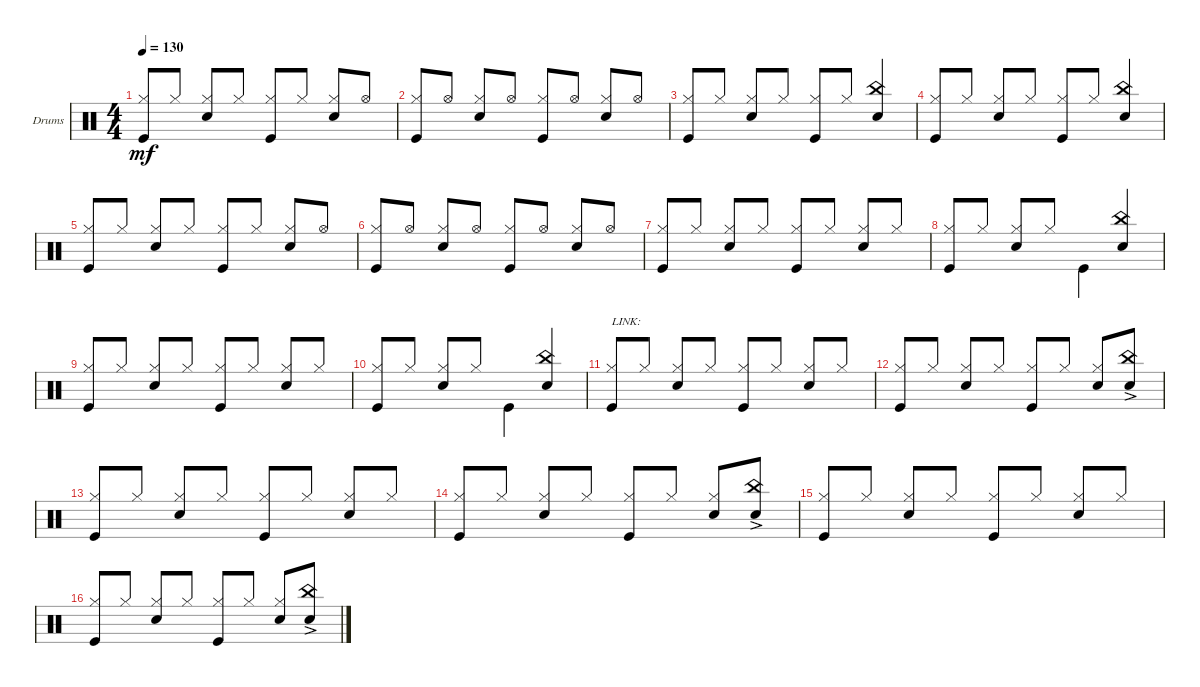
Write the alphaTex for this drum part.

\defaultSystemsLayout 4
\bracketExtendMode groupsimilarinstruments
\firstSystemTrackNameOrientation horizontal
\otherSystemsTrackNameOrientation horizontal
\track ("Drumkit" "Drums") {instrument percussion}
\staff {score}
\articulation defaults
\ts (4 4)
\tempo 130
\clef neutral
\scale
0.333333
\ks c
("Hi-Hat (closed)" "Kick (hit)").8{dy mf beam invert} "Hi-Hat (closed)".8 ("Hi-Hat (closed)" "Snare (hit) 2").8{beam invert} "Hi-Hat (closed)".8 ("Hi-Hat (closed)" "Kick (hit)").8{beam invert} "Hi-Hat (closed)".8 ("Hi-Hat (closed)" "Snare (hit) 2").8{beam invert} "Hi-Hat (open)".8 |
\scale
0.333333 ("Hi-Hat (closed)" "Kick (hit)").8{beam invert} "Hi-Hat (open)".8 ("Hi-Hat (closed)" "Snare (hit) 2").8{beam invert} "Hi-Hat (open)".8 ("Hi-Hat (closed)" "Kick (hit)").8{beam invert} "Hi-Hat (open)".8 ("Hi-Hat (closed)" "Snare (hit) 2").8{beam invert} "Hi-Hat (open)".8 |
\scale
0.333333 ("Hi-Hat (closed)" "Kick (hit)").8{beam invert} "Hi-Hat (closed)".8 ("Hi-Hat (closed)" "Snare (hit) 2").8{beam invert} "Hi-Hat (closed)".8 ("Hi-Hat (closed)" "Kick (hit)").8{beam invert} "Hi-Hat (closed)".8 ("Snare (hit) 2" "China (hit)").4{beam invert} |
\scale
0.333333 ("Hi-Hat (closed)" "Kick (hit)").8{beam invert} "Hi-Hat (closed)".8 ("Hi-Hat (closed)" "Snare (hit) 2").8{beam invert} "Hi-Hat (closed)".8 ("Hi-Hat (closed)" "Kick (hit)").8{beam invert} "Hi-Hat (closed)".8 ("Snare (hit) 2" "China (hit)").4{beam invert} |
\scale
0.333333 ("Hi-Hat (closed)" "Kick (hit)").8{beam invert} "Hi-Hat (closed)".8 ("Hi-Hat (closed)" "Snare (hit) 2").8{beam invert} "Hi-Hat (closed)".8 ("Hi-Hat (closed)" "Kick (hit)").8{beam invert} "Hi-Hat (closed)".8 ("Hi-Hat (closed)" "Snare (hit) 2").8{beam invert} "Hi-Hat (open)".8 |
\scale
0.333333 ("Hi-Hat (closed)" "Kick (hit)").8{beam invert} "Hi-Hat (open)".8 ("Hi-Hat (closed)" "Snare (hit) 2").8{beam invert} "Hi-Hat (open)".8 ("Hi-Hat (closed)" "Kick (hit)").8{beam invert} "Hi-Hat (open)".8 ("Hi-Hat (closed)" "Snare (hit) 2").8{beam invert} "Hi-Hat (open)".8 |
\scale
0.333333 ("Hi-Hat (closed)" "Kick (hit)").8{beam invert} "Hi-Hat (closed)".8 ("Hi-Hat (closed)" "Snare (hit) 2").8{beam invert} "Hi-Hat (closed)".8 ("Hi-Hat (closed)" "Kick (hit)").8{beam invert} "Hi-Hat (closed)".8 ("Hi-Hat (closed)" "Snare (hit) 2").8{beam invert} "Hi-Hat (closed)".8 |
\scale
0.333333 ("Hi-Hat (closed)" "Kick (hit)").8{beam invert} "Hi-Hat (closed)".8 ("Hi-Hat (closed)" "Snare (hit) 2").8{beam invert} "Hi-Hat (closed)".8 "Kick (hit)".4 ("Snare (hit) 2" "China (hit)").4{beam invert} |
\scale
0.333333 ("Hi-Hat (closed)" "Kick (hit)").8{beam invert} "Hi-Hat (closed)".8 ("Hi-Hat (closed)" "Snare (hit) 2").8{beam invert} "Hi-Hat (closed)".8 ("Hi-Hat (closed)" "Kick (hit)").8{beam invert} "Hi-Hat (closed)".8 ("Hi-Hat (closed)" "Snare (hit) 2").8{beam invert} "Hi-Hat (closed)".8 |
\scale
0.333333 ("Hi-Hat (closed)" "Kick (hit)").8{beam invert} "Hi-Hat (closed)".8 ("Hi-Hat (closed)" "Snare (hit) 2").8{beam invert} "Hi-Hat (closed)".8 "Kick (hit)".4 ("Snare (hit) 2" "China (hit)").4{beam invert} |
\scale
0.333333 ("Hi-Hat (closed)" "Kick (hit)").8{txt "LINK:" beam invert} "Hi-Hat (closed)".8 ("Hi-Hat (closed)" "Snare (hit) 2").8{beam invert} "Hi-Hat (closed)".8 ("Hi-Hat (closed)" "Kick (hit)").8{beam invert} "Hi-Hat (closed)".8 ("Hi-Hat (closed)" "Snare (hit) 2").8{beam invert} "Hi-Hat (closed)".8 |
\scale
0.333333 ("Hi-Hat (closed)" "Kick (hit)").8{beam invert} "Hi-Hat (closed)".8 ("Hi-Hat (closed)" "Snare (hit) 2").8{beam invert} "Hi-Hat (closed)".8 ("Hi-Hat (closed)" "Kick (hit)").8{beam invert} "Hi-Hat (closed)".8 ("Hi-Hat (closed)" "Snare (hit) 2").8{beam invert} ("Snare (hit) 2" "China (hit)"{ac}).8 |
\scale
0.333333 ("Hi-Hat (closed)" "Kick (hit)").8{beam invert} "Hi-Hat (closed)".8 ("Hi-Hat (closed)" "Snare (hit) 2").8{beam invert} "Hi-Hat (closed)".8 ("Hi-Hat (closed)" "Kick (hit)").8{beam invert} "Hi-Hat (closed)".8 ("Hi-Hat (closed)" "Snare (hit) 2").8{beam invert} "Hi-Hat (closed)".8 |
\scale
0.333333 ("Hi-Hat (closed)" "Kick (hit)").8{beam invert} "Hi-Hat (closed)".8 ("Hi-Hat (closed)" "Snare (hit) 2").8{beam invert} "Hi-Hat (closed)".8 ("Hi-Hat (closed)" "Kick (hit)").8{beam invert} "Hi-Hat (closed)".8 ("Hi-Hat (closed)" "Snare (hit) 2").8{beam invert} ("Snare (hit) 2" "China (hit)"{ac}).8 |
\scale
0.333333 ("Hi-Hat (closed)" "Kick (hit)").8{beam invert} "Hi-Hat (closed)".8 ("Hi-Hat (closed)" "Snare (hit) 2").8{beam invert} "Hi-Hat (closed)".8 ("Hi-Hat (closed)" "Kick (hit)").8{beam invert} "Hi-Hat (closed)".8 ("Hi-Hat (closed)" "Snare (hit) 2").8{beam invert} "Hi-Hat (closed)".8 |
\scale
0.333333 ("Hi-Hat (closed)" "Kick (hit)").8{beam invert} "Hi-Hat (closed)".8 ("Hi-Hat (closed)" "Snare (hit) 2").8{beam invert} "Hi-Hat (closed)".8 ("Hi-Hat (closed)" "Kick (hit)").8{beam invert} "Hi-Hat (closed)".8 ("Hi-Hat (closed)" "Snare (hit) 2").8{beam invert} ("Snare (hit) 2" "China (hit)"{ac}).8
